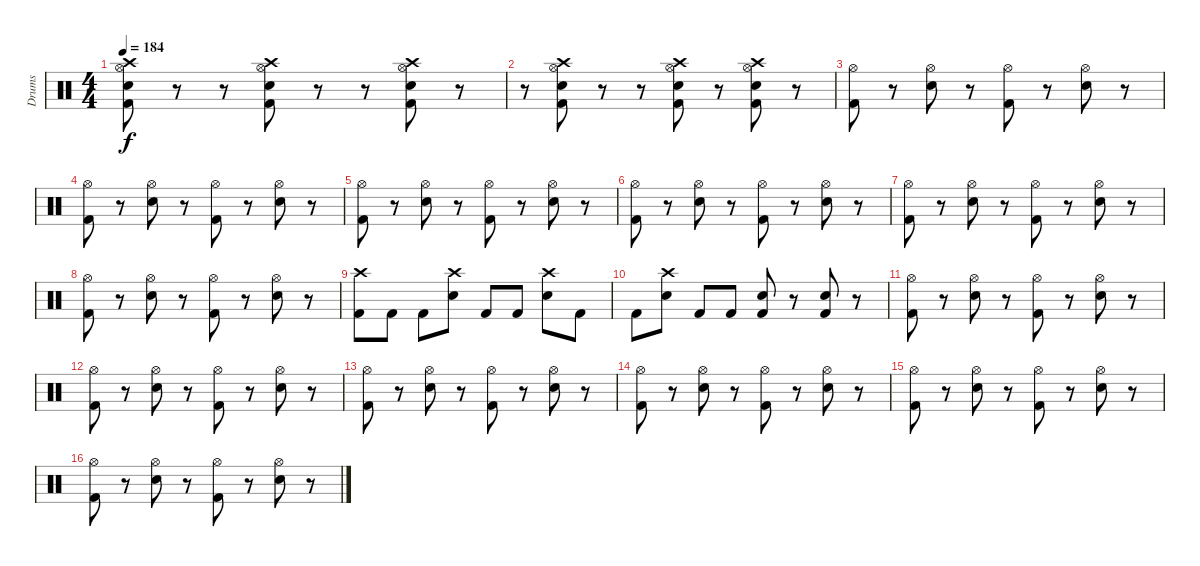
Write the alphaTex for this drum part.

\track ("Drums" "Drums") {instrument percussion}
\staff {score}
\articulation defaults
\ts (4 4)
\tempo 184
\clef neutral
\ks c
("Kick (hit) 2" "Electric Snare (hit)" "Hi-Hat (open)" "Crash high (hit)").8{dy f} r.8 r.8 ("Kick (hit) 2" "Electric Snare (hit)" "Hi-Hat (open)" "Crash high (hit)").8 r.8 r.8 ("Kick (hit) 2" "Electric Snare (hit)" "Hi-Hat (open)" "Crash high (hit)").8 r.8 |
r.8 ("Kick (hit) 2" "Electric Snare (hit)" "Hi-Hat (open)" "Crash high (hit)").8 r.8 r.8 ("Kick (hit) 2" "Electric Snare (hit)" "Hi-Hat (open)" "Crash high (hit)").8 r.8 ("Kick (hit) 2" "Electric Snare (hit)" "Hi-Hat (open)" "Crash high (hit)").8 r.8 |
("Kick (hit) 2" "Hi-Hat (open)").8 r.8 ("Electric Snare (hit)" "Hi-Hat (open)").8 r.8 ("Kick (hit) 2" "Hi-Hat (open)").8 r.8 ("Electric Snare (hit)" "Hi-Hat (open)").8 r.8 |
("Kick (hit) 2" "Hi-Hat (open)").8 r.8 ("Electric Snare (hit)" "Hi-Hat (open)").8 r.8 ("Kick (hit) 2" "Hi-Hat (open)").8 r.8 ("Electric Snare (hit)" "Hi-Hat (open)").8 r.8 |
("Kick (hit) 2" "Hi-Hat (open)").8 r.8 ("Electric Snare (hit)" "Hi-Hat (open)").8 r.8 ("Kick (hit) 2" "Hi-Hat (open)").8 r.8 ("Electric Snare (hit)" "Hi-Hat (open)").8 r.8 |
("Kick (hit) 2" "Hi-Hat (open)").8 r.8 ("Electric Snare (hit)" "Hi-Hat (open)").8 r.8 ("Kick (hit) 2" "Hi-Hat (open)").8 r.8 ("Electric Snare (hit)" "Hi-Hat (open)").8 r.8 |
("Kick (hit) 2" "Hi-Hat (open)").8 r.8 ("Electric Snare (hit)" "Hi-Hat (open)").8 r.8 ("Kick (hit) 2" "Hi-Hat (open)").8 r.8 ("Electric Snare (hit)" "Hi-Hat (open)").8 r.8 |
("Kick (hit) 2" "Hi-Hat (open)").8 r.8 ("Electric Snare (hit)" "Hi-Hat (open)").8 r.8 ("Kick (hit) 2" "Hi-Hat (open)").8 r.8 ("Electric Snare (hit)" "Hi-Hat (open)").8 r.8 |
("Kick (hit) 2" "Crash high (hit)").8 "Kick (hit) 2".8 "Kick (hit) 2".8 ("Crash high (hit)" "Electric Snare (hit)").8 "Kick (hit) 2".8 "Kick (hit) 2".8 ("Crash high (hit)" "Electric Snare (hit)").8 "Kick (hit) 2".8 |
"Kick (hit) 2".8 ("Crash high (hit)" "Electric Snare (hit)").8 "Kick (hit) 2".8 "Kick (hit) 2".8 ("Snare (hit) 2" "Kick (hit) 2").8 r.8 ("Snare (hit) 2" "Kick (hit) 2").8 r.8 |
("Kick (hit) 2" "Hi-Hat (open)").8 r.8 ("Electric Snare (hit)" "Hi-Hat (open)").8 r.8 ("Kick (hit) 2" "Hi-Hat (open)").8 r.8 ("Electric Snare (hit)" "Hi-Hat (open)").8 r.8 |
("Kick (hit) 2" "Hi-Hat (open)").8 r.8 ("Electric Snare (hit)" "Hi-Hat (open)").8 r.8 ("Kick (hit) 2" "Hi-Hat (open)").8 r.8 ("Electric Snare (hit)" "Hi-Hat (open)").8 r.8 |
("Kick (hit) 2" "Hi-Hat (open)").8 r.8 ("Electric Snare (hit)" "Hi-Hat (open)").8 r.8 ("Kick (hit) 2" "Hi-Hat (open)").8 r.8 ("Electric Snare (hit)" "Hi-Hat (open)").8 r.8 |
("Kick (hit) 2" "Hi-Hat (open)").8 r.8 ("Electric Snare (hit)" "Hi-Hat (open)").8 r.8 ("Kick (hit) 2" "Hi-Hat (open)").8 r.8 ("Electric Snare (hit)" "Hi-Hat (open)").8 r.8 |
("Kick (hit) 2" "Hi-Hat (open)").8 r.8 ("Electric Snare (hit)" "Hi-Hat (open)").8 r.8 ("Kick (hit) 2" "Hi-Hat (open)").8 r.8 ("Electric Snare (hit)" "Hi-Hat (open)").8 r.8 |
("Kick (hit) 2" "Hi-Hat (open)").8 r.8 ("Electric Snare (hit)" "Hi-Hat (open)").8 r.8 ("Kick (hit) 2" "Hi-Hat (open)").8 r.8 ("Electric Snare (hit)" "Hi-Hat (open)").8 r.8
